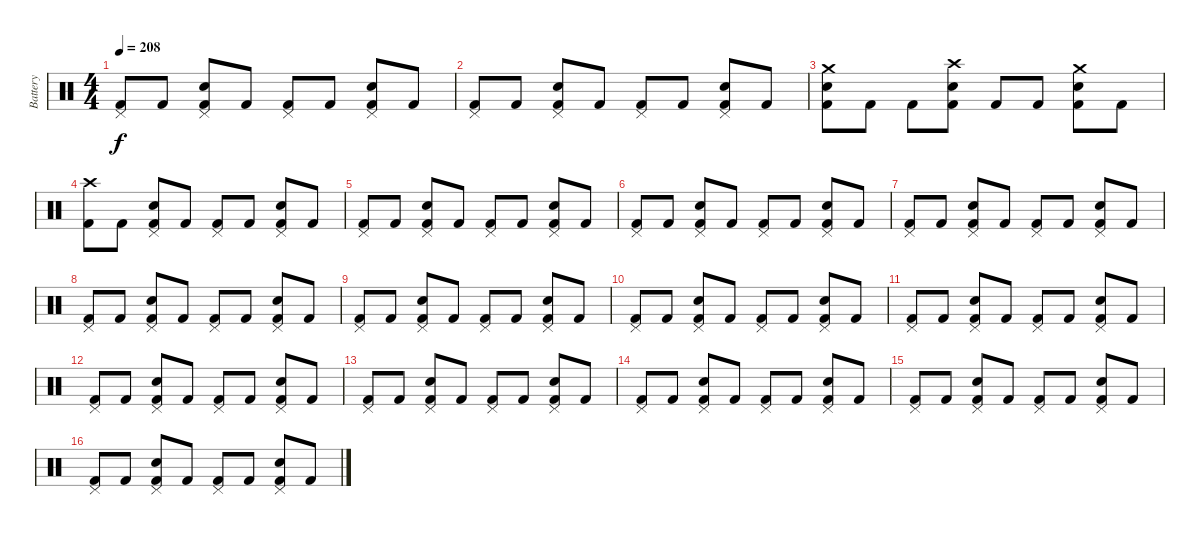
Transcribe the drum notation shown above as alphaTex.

\track ("Battery" "Battery") {instrument percussion}
\staff {score}
\articulation defaults
\ts (4 4)
\tempo 208
\clef neutral
\ks c
("Pedal Hi-Hat (hit)" "Kick (hit) 2").8{dy f} "Kick (hit) 2".8 ("Pedal Hi-Hat (hit)" "Electric Snare (hit)" "Kick (hit) 2").8 "Kick (hit) 2".8 ("Pedal Hi-Hat (hit)" "Kick (hit) 2").8 "Kick (hit) 2".8 ("Pedal Hi-Hat (hit)" "Electric Snare (hit)" "Kick (hit) 2").8 "Kick (hit) 2".8 |
("Pedal Hi-Hat (hit)" "Kick (hit) 2").8 "Kick (hit) 2".8 ("Pedal Hi-Hat (hit)" "Electric Snare (hit)" "Kick (hit) 2").8 "Kick (hit) 2".8 ("Pedal Hi-Hat (hit)" "Kick (hit) 2").8 "Kick (hit) 2".8 ("Pedal Hi-Hat (hit)" "Electric Snare (hit)" "Kick (hit) 2").8 "Kick (hit) 2".8 |
("Crash medium (hit)" "Electric Snare (hit)" "Kick (hit) 2").8 "Kick (hit) 2".8 "Kick (hit) 2".8 ("Crash high (hit)" "Electric Snare (hit)" "Kick (hit) 2").8 "Kick (hit) 2".8 "Kick (hit) 2".8 ("Crash medium (hit)" "Electric Snare (hit)" "Kick (hit) 2").8 "Kick (hit) 2".8 |
("Crash high (hit)" "Kick (hit) 2").8 "Kick (hit) 2".8 ("Pedal Hi-Hat (hit)" "Electric Snare (hit)" "Kick (hit) 2").8 "Kick (hit) 2".8 ("Pedal Hi-Hat (hit)" "Kick (hit) 2").8 "Kick (hit) 2".8 ("Pedal Hi-Hat (hit)" "Electric Snare (hit)" "Kick (hit) 2").8 "Kick (hit) 2".8 |
("Pedal Hi-Hat (hit)" "Kick (hit) 2").8 "Kick (hit) 2".8 ("Pedal Hi-Hat (hit)" "Electric Snare (hit)" "Kick (hit) 2").8 "Kick (hit) 2".8 ("Pedal Hi-Hat (hit)" "Kick (hit) 2").8 "Kick (hit) 2".8 ("Pedal Hi-Hat (hit)" "Electric Snare (hit)" "Kick (hit) 2").8 "Kick (hit) 2".8 |
("Pedal Hi-Hat (hit)" "Kick (hit) 2").8 "Kick (hit) 2".8 ("Pedal Hi-Hat (hit)" "Electric Snare (hit)" "Kick (hit) 2").8 "Kick (hit) 2".8 ("Pedal Hi-Hat (hit)" "Kick (hit) 2").8 "Kick (hit) 2".8 ("Pedal Hi-Hat (hit)" "Electric Snare (hit)" "Kick (hit) 2").8 "Kick (hit) 2".8 |
("Pedal Hi-Hat (hit)" "Kick (hit) 2").8 "Kick (hit) 2".8 ("Pedal Hi-Hat (hit)" "Electric Snare (hit)" "Kick (hit) 2").8 "Kick (hit) 2".8 ("Pedal Hi-Hat (hit)" "Kick (hit) 2").8 "Kick (hit) 2".8 ("Pedal Hi-Hat (hit)" "Electric Snare (hit)" "Kick (hit) 2").8 "Kick (hit) 2".8 |
("Pedal Hi-Hat (hit)" "Kick (hit) 2").8 "Kick (hit) 2".8 ("Pedal Hi-Hat (hit)" "Electric Snare (hit)" "Kick (hit) 2").8 "Kick (hit) 2".8 ("Pedal Hi-Hat (hit)" "Kick (hit) 2").8 "Kick (hit) 2".8 ("Pedal Hi-Hat (hit)" "Electric Snare (hit)" "Kick (hit) 2").8 "Kick (hit) 2".8 |
("Pedal Hi-Hat (hit)" "Kick (hit) 2").8 "Kick (hit) 2".8 ("Pedal Hi-Hat (hit)" "Electric Snare (hit)" "Kick (hit) 2").8 "Kick (hit) 2".8 ("Pedal Hi-Hat (hit)" "Kick (hit) 2").8 "Kick (hit) 2".8 ("Pedal Hi-Hat (hit)" "Electric Snare (hit)" "Kick (hit) 2").8 "Kick (hit) 2".8 |
("Pedal Hi-Hat (hit)" "Kick (hit) 2").8 "Kick (hit) 2".8 ("Pedal Hi-Hat (hit)" "Electric Snare (hit)" "Kick (hit) 2").8 "Kick (hit) 2".8 ("Pedal Hi-Hat (hit)" "Kick (hit) 2").8 "Kick (hit) 2".8 ("Pedal Hi-Hat (hit)" "Electric Snare (hit)" "Kick (hit) 2").8 "Kick (hit) 2".8 |
("Pedal Hi-Hat (hit)" "Kick (hit) 2").8 "Kick (hit) 2".8 ("Pedal Hi-Hat (hit)" "Electric Snare (hit)" "Kick (hit) 2").8 "Kick (hit) 2".8 ("Pedal Hi-Hat (hit)" "Kick (hit) 2").8 "Kick (hit) 2".8 ("Pedal Hi-Hat (hit)" "Electric Snare (hit)" "Kick (hit) 2").8 "Kick (hit) 2".8 |
("Pedal Hi-Hat (hit)" "Kick (hit) 2").8 "Kick (hit) 2".8 ("Pedal Hi-Hat (hit)" "Electric Snare (hit)" "Kick (hit) 2").8 "Kick (hit) 2".8 ("Pedal Hi-Hat (hit)" "Kick (hit) 2").8 "Kick (hit) 2".8 ("Pedal Hi-Hat (hit)" "Electric Snare (hit)" "Kick (hit) 2").8 "Kick (hit) 2".8 |
("Pedal Hi-Hat (hit)" "Kick (hit) 2").8 "Kick (hit) 2".8 ("Pedal Hi-Hat (hit)" "Electric Snare (hit)" "Kick (hit) 2").8 "Kick (hit) 2".8 ("Pedal Hi-Hat (hit)" "Kick (hit) 2").8 "Kick (hit) 2".8 ("Pedal Hi-Hat (hit)" "Electric Snare (hit)" "Kick (hit) 2").8 "Kick (hit) 2".8 |
("Pedal Hi-Hat (hit)" "Kick (hit) 2").8 "Kick (hit) 2".8 ("Pedal Hi-Hat (hit)" "Electric Snare (hit)" "Kick (hit) 2").8 "Kick (hit) 2".8 ("Pedal Hi-Hat (hit)" "Kick (hit) 2").8 "Kick (hit) 2".8 ("Pedal Hi-Hat (hit)" "Electric Snare (hit)" "Kick (hit) 2").8 "Kick (hit) 2".8 |
("Pedal Hi-Hat (hit)" "Kick (hit) 2").8 "Kick (hit) 2".8 ("Pedal Hi-Hat (hit)" "Electric Snare (hit)" "Kick (hit) 2").8 "Kick (hit) 2".8 ("Pedal Hi-Hat (hit)" "Kick (hit) 2").8 "Kick (hit) 2".8 ("Pedal Hi-Hat (hit)" "Electric Snare (hit)" "Kick (hit) 2").8 "Kick (hit) 2".8 |
("Pedal Hi-Hat (hit)" "Kick (hit) 2").8 "Kick (hit) 2".8 ("Pedal Hi-Hat (hit)" "Electric Snare (hit)" "Kick (hit) 2").8 "Kick (hit) 2".8 ("Pedal Hi-Hat (hit)" "Kick (hit) 2").8 "Kick (hit) 2".8 ("Pedal Hi-Hat (hit)" "Electric Snare (hit)" "Kick (hit) 2").8 "Kick (hit) 2".8
